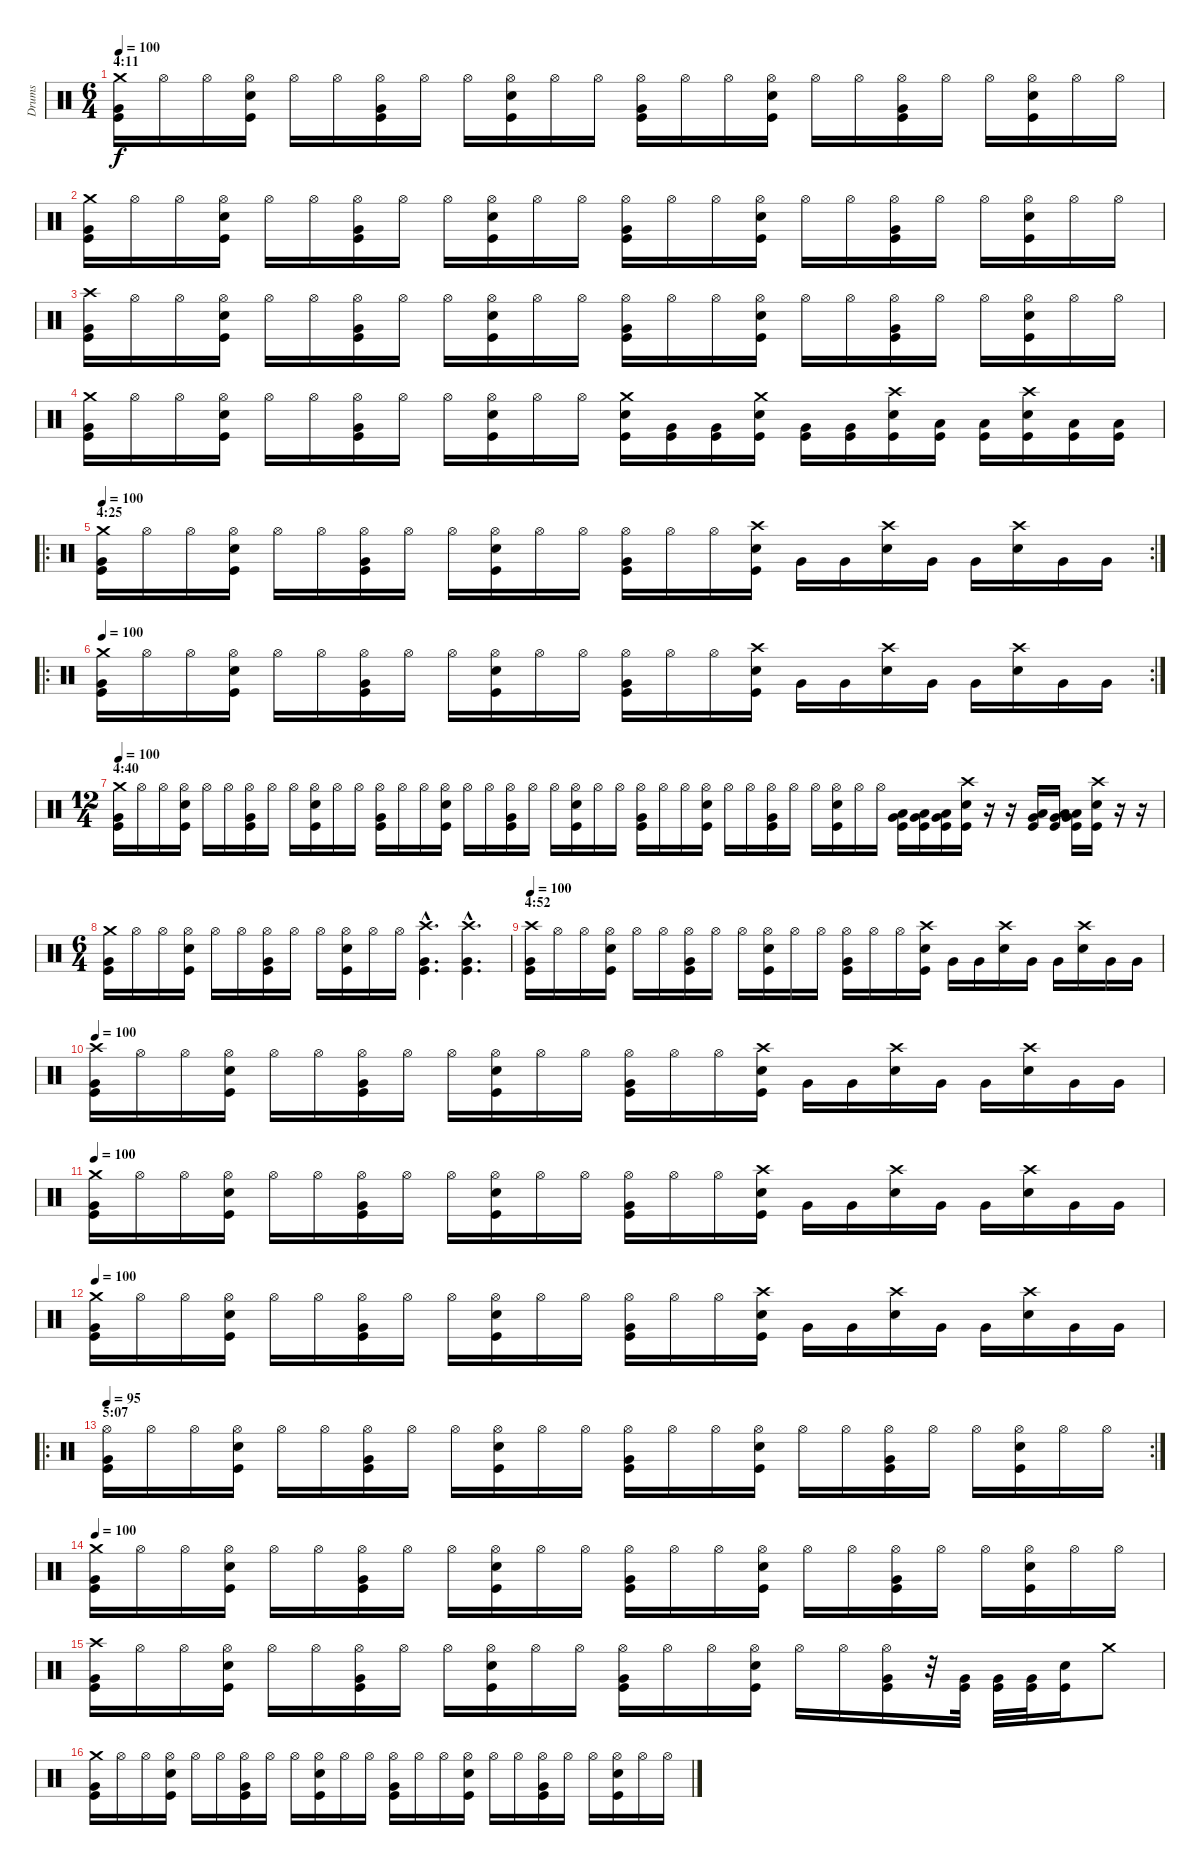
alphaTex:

\track ("Drums" "Drums") {instrument percussion}
\staff {score}
\articulation defaults
\ts (6 4)
\section ("" "4:11")
\tempo 100
\clef neutral
\ks c
("Crash medium (hit)" "Very Low Tom (hit)" "Kick (hit)").16{dy f} "Hi-Hat (open)".16 "Hi-Hat (open)".16 ("Hi-Hat (open)" "Snare (hit) 2" "Kick (hit)").16 "Hi-Hat (open)".16 "Hi-Hat (open)".16 ("Hi-Hat (open)" "Very Low Tom (hit)" "Kick (hit)").16 "Hi-Hat (open)".16 "Hi-Hat (open)".16 ("Hi-Hat (open)" "Snare (hit) 2" "Kick (hit)").16 "Hi-Hat (open)".16 "Hi-Hat (open)".16 ("Hi-Hat (open)" "Very Low Tom (hit)" "Kick (hit)").16 "Hi-Hat (open)".16 "Hi-Hat (open)".16 ("Hi-Hat (open)" "Snare (hit) 2" "Kick (hit)").16 "Hi-Hat (open)".16 "Hi-Hat (open)".16 ("Hi-Hat (open)" "Very Low Tom (hit)" "Kick (hit)").16 "Hi-Hat (open)".16 "Hi-Hat (open)".16 ("Hi-Hat (open)" "Snare (hit) 2" "Kick (hit)").16 "Hi-Hat (open)".16 "Hi-Hat (open)".16 |
("Crash medium (hit)" "Very Low Tom (hit)" "Kick (hit)").16 "Hi-Hat (open)".16 "Hi-Hat (open)".16 ("Hi-Hat (open)" "Snare (hit) 2" "Kick (hit)").16 "Hi-Hat (open)".16 "Hi-Hat (open)".16 ("Hi-Hat (open)" "Very Low Tom (hit)" "Kick (hit)").16 "Hi-Hat (open)".16 "Hi-Hat (open)".16 ("Hi-Hat (open)" "Snare (hit) 2" "Kick (hit)").16 "Hi-Hat (open)".16 "Hi-Hat (open)".16 ("Hi-Hat (open)" "Very Low Tom (hit)" "Kick (hit)").16 "Hi-Hat (open)".16 "Hi-Hat (open)".16 ("Hi-Hat (open)" "Snare (hit) 2" "Kick (hit)").16 "Hi-Hat (open)".16 "Hi-Hat (open)".16 ("Hi-Hat (open)" "Very Low Tom (hit)" "Kick (hit)").16 "Hi-Hat (open)".16 "Hi-Hat (open)".16 ("Hi-Hat (open)" "Snare (hit) 2" "Kick (hit)").16 "Hi-Hat (open)".16 "Hi-Hat (open)".16 |
("Crash high (hit)" "Very Low Tom (hit)" "Kick (hit)").16 "Hi-Hat (open)".16 "Hi-Hat (open)".16 ("Hi-Hat (open)" "Snare (hit) 2" "Kick (hit)").16 "Hi-Hat (open)".16 "Hi-Hat (open)".16 ("Hi-Hat (open)" "Very Low Tom (hit)" "Kick (hit)").16 "Hi-Hat (open)".16 "Hi-Hat (open)".16 ("Hi-Hat (open)" "Snare (hit) 2" "Kick (hit)").16 "Hi-Hat (open)".16 "Hi-Hat (open)".16 ("Hi-Hat (open)" "Very Low Tom (hit)" "Kick (hit)").16 "Hi-Hat (open)".16 "Hi-Hat (open)".16 ("Hi-Hat (open)" "Snare (hit) 2" "Kick (hit)").16 "Hi-Hat (open)".16 "Hi-Hat (open)".16 ("Hi-Hat (open)" "Very Low Tom (hit)" "Kick (hit)").16 "Hi-Hat (open)".16 "Hi-Hat (open)".16 ("Hi-Hat (open)" "Snare (hit) 2" "Kick (hit)").16 "Hi-Hat (open)".16 "Hi-Hat (open)".16 |
("Crash medium (hit)" "Very Low Tom (hit)" "Kick (hit)").16 "Hi-Hat (open)".16 "Hi-Hat (open)".16 ("Hi-Hat (open)" "Snare (hit) 2" "Kick (hit)").16 "Hi-Hat (open)".16 "Hi-Hat (open)".16 ("Hi-Hat (open)" "Very Low Tom (hit)" "Kick (hit)").16 "Hi-Hat (open)".16 "Hi-Hat (open)".16 ("Hi-Hat (open)" "Snare (hit) 2" "Kick (hit)").16 "Hi-Hat (open)".16 "Hi-Hat (open)".16 ("Crash medium (hit)" "Snare (hit) 2" "Kick (hit)").16 ("Very Low Tom (hit)" "Kick (hit)").16 ("Very Low Tom (hit)" "Kick (hit)").16 ("Crash medium (hit)" "Snare (hit) 2" "Kick (hit)").16 ("Very Low Tom (hit)" "Kick (hit)").16 ("Very Low Tom (hit)" "Kick (hit)").16 ("Crash high (hit)" "Snare (hit) 2" "Kick (hit)").16 ("Low Tom (hit)" "Kick (hit)").16 ("Low Tom (hit)" "Kick (hit)").16 ("Crash high (hit)" "Snare (hit) 2" "Kick (hit)").16 ("Low Tom (hit)" "Kick (hit)").16 ("Low Tom (hit)" "Kick (hit)").16 |
\ro
\rc 2
\section ("" "4:25")
\tempo 100
("Crash medium (hit)" "Very Low Tom (hit)" "Kick (hit)").16 "Hi-Hat (open)".16 "Hi-Hat (open)".16 ("Hi-Hat (open)" "Snare (hit) 2" "Kick (hit)").16 "Hi-Hat (open)".16 "Hi-Hat (open)".16 ("Hi-Hat (open)" "Very Low Tom (hit)" "Kick (hit)").16 "Hi-Hat (open)".16 "Hi-Hat (open)".16 ("Hi-Hat (open)" "Snare (hit) 2" "Kick (hit)").16 "Hi-Hat (open)".16 "Hi-Hat (open)".16 ("Hi-Hat (open)" "Very Low Tom (hit)" "Kick (hit)").16 "Hi-Hat (open)".16 "Hi-Hat (open)".16 ("Crash high (hit)" "Snare (hit) 2" "Kick (hit)").16 "Very Low Tom (hit)".16 "Very Low Tom (hit)".16 ("Crash high (hit)" "Snare (hit) 2").16 "Very Low Tom (hit)".16 "Very Low Tom (hit)".16 ("Crash high (hit)" "Snare (hit) 2").16 "Very Low Tom (hit)".16 "Very Low Tom (hit)".16 |
\ro
\rc 2
\tempo 100
("Crash medium (hit)" "Very Low Tom (hit)" "Kick (hit)").16 "Hi-Hat (open)".16 "Hi-Hat (open)".16 ("Hi-Hat (open)" "Snare (hit) 2" "Kick (hit)").16 "Hi-Hat (open)".16 "Hi-Hat (open)".16 ("Hi-Hat (open)" "Very Low Tom (hit)" "Kick (hit)").16 "Hi-Hat (open)".16 "Hi-Hat (open)".16 ("Hi-Hat (open)" "Snare (hit) 2" "Kick (hit)").16 "Hi-Hat (open)".16 "Hi-Hat (open)".16 ("Hi-Hat (open)" "Very Low Tom (hit)" "Kick (hit)").16 "Hi-Hat (open)".16 "Hi-Hat (open)".16 ("Crash high (hit)" "Snare (hit) 2" "Kick (hit)").16 "Very Low Tom (hit)".16 "Very Low Tom (hit)".16 ("Crash high (hit)" "Snare (hit) 2").16 "Very Low Tom (hit)".16 "Very Low Tom (hit)".16 ("Crash high (hit)" "Snare (hit) 2").16 "Very Low Tom (hit)".16 "Very Low Tom (hit)".16 |
\ts (12 4)
\section ("" "4:40")
\tempo 100
("Crash medium (hit)" "Very Low Tom (hit)" "Kick (hit)").16 "Hi-Hat (open)".16 "Hi-Hat (open)".16 ("Hi-Hat (open)" "Snare (hit) 2" "Kick (hit)").16 "Hi-Hat (open)".16 "Hi-Hat (open)".16 ("Hi-Hat (open)" "Very Low Tom (hit)" "Kick (hit)").16 "Hi-Hat (open)".16 "Hi-Hat (open)".16 ("Hi-Hat (open)" "Snare (hit) 2" "Kick (hit)").16 "Hi-Hat (open)".16 "Hi-Hat (open)".16 ("Hi-Hat (open)" "Very Low Tom (hit)" "Kick (hit)").16 "Hi-Hat (open)".16 "Hi-Hat (open)".16 ("Hi-Hat (open)" "Snare (hit) 2" "Kick (hit)").16 "Hi-Hat (open)".16 "Hi-Hat (open)".16 ("Hi-Hat (open)" "Very Low Tom (hit)" "Kick (hit)").16 "Hi-Hat (open)".16 "Hi-Hat (open)".16 ("Hi-Hat (open)" "Snare (hit) 2" "Kick (hit)").16 "Hi-Hat (open)".16 "Hi-Hat (open)".16 ("Hi-Hat (open)" "Very Low Tom (hit)" "Kick (hit)").16 "Hi-Hat (open)".16 "Hi-Hat (open)".16 ("Hi-Hat (open)" "Snare (hit) 2" "Kick (hit)").16 "Hi-Hat (open)".16 "Hi-Hat (open)".16 ("Hi-Hat (open)" "Very Low Tom (hit)" "Kick (hit)").16 "Hi-Hat (open)".16 "Hi-Hat (open)".16 ("Hi-Hat (open)" "Snare (hit) 2" "Kick (hit)").16 "Hi-Hat (open)".16 "Hi-Hat (open)".16 ("Very Low Tom (hit)" "Low Tom (hit)" "Kick (hit)").16 ("Very Low Tom (hit)" "Low Tom (hit)" "Kick (hit)").16 ("Very Low Tom (hit)" "Low Tom (hit)" "Kick (hit)").16 ("Crash high (hit)" "Snare (hit) 2" "Kick (hit)").16 r.16 r.16 ("Very Low Tom (hit)" "Low Tom (hit)" "Kick (hit)").16 ("Very Low Tom (hit)" "Low Tom (hit)" "Kick (hit)").16 ("Very Low Tom (hit)" "Low Tom (hit)" "Kick (hit)").16 ("Crash high (hit)" "Snare (hit) 2" "Kick (hit)").16 r.16 r.16 |
\ts (6 4)
("Crash medium (hit)" "Very Low Tom (hit)" "Kick (hit)").16 "Hi-Hat (open)".16 "Hi-Hat (open)".16 ("Hi-Hat (open)" "Snare (hit) 2" "Kick (hit)").16 "Hi-Hat (open)".16 "Hi-Hat (open)".16 ("Hi-Hat (open)" "Very Low Tom (hit)" "Kick (hit)").16 "Hi-Hat (open)".16 "Hi-Hat (open)".16 ("Hi-Hat (open)" "Snare (hit) 2" "Kick (hit)").16 "Hi-Hat (open)".16 "Hi-Hat (open)".16 ("Crash high (hit)"{hac} "Very Low Tom (hit)"{hac} "Kick (hit)"{hac}).4{d} ("Crash high (hit)"{hac} "Very Low Tom (hit)"{hac} "Kick (hit)"{hac}).4{d} |
\section ("" "4:52")
\tempo 100
("Crash high (hit)" "Very Low Tom (hit)" "Kick (hit)").16 "Hi-Hat (open)".16 "Hi-Hat (open)".16 ("Hi-Hat (open)" "Snare (hit) 2" "Kick (hit)").16 "Hi-Hat (open)".16 "Hi-Hat (open)".16 ("Hi-Hat (open)" "Very Low Tom (hit)" "Kick (hit)").16 "Hi-Hat (open)".16 "Hi-Hat (open)".16 ("Hi-Hat (open)" "Snare (hit) 2" "Kick (hit)").16 "Hi-Hat (open)".16 "Hi-Hat (open)".16 ("Hi-Hat (open)" "Very Low Tom (hit)" "Kick (hit)").16 "Hi-Hat (open)".16 "Hi-Hat (open)".16 ("Crash high (hit)" "Snare (hit) 2" "Kick (hit)").16 "Very Low Tom (hit)".16 "Very Low Tom (hit)".16 ("Crash high (hit)" "Snare (hit) 2").16 "Very Low Tom (hit)".16 "Very Low Tom (hit)".16 ("Crash high (hit)" "Snare (hit) 2").16 "Very Low Tom (hit)".16 "Very Low Tom (hit)".16 |
\tempo 100
("Crash high (hit)" "Very Low Tom (hit)" "Kick (hit)").16 "Hi-Hat (open)".16 "Hi-Hat (open)".16 ("Hi-Hat (open)" "Snare (hit) 2" "Kick (hit)").16 "Hi-Hat (open)".16 "Hi-Hat (open)".16 ("Hi-Hat (open)" "Very Low Tom (hit)" "Kick (hit)").16 "Hi-Hat (open)".16 "Hi-Hat (open)".16 ("Hi-Hat (open)" "Snare (hit) 2" "Kick (hit)").16 "Hi-Hat (open)".16 "Hi-Hat (open)".16 ("Hi-Hat (open)" "Very Low Tom (hit)" "Kick (hit)").16 "Hi-Hat (open)".16 "Hi-Hat (open)".16 ("Crash high (hit)" "Snare (hit) 2" "Kick (hit)").16 "Very Low Tom (hit)".16 "Very Low Tom (hit)".16 ("Crash high (hit)" "Snare (hit) 2").16 "Very Low Tom (hit)".16 "Very Low Tom (hit)".16 ("Crash high (hit)" "Snare (hit) 2").16 "Very Low Tom (hit)".16 "Very Low Tom (hit)".16 |
\tempo 100
("Crash medium (hit)" "Very Low Tom (hit)" "Kick (hit)").16 "Hi-Hat (open)".16 "Hi-Hat (open)".16 ("Hi-Hat (open)" "Snare (hit) 2" "Kick (hit)").16 "Hi-Hat (open)".16 "Hi-Hat (open)".16 ("Hi-Hat (open)" "Very Low Tom (hit)" "Kick (hit)").16 "Hi-Hat (open)".16 "Hi-Hat (open)".16 ("Hi-Hat (open)" "Snare (hit) 2" "Kick (hit)").16 "Hi-Hat (open)".16 "Hi-Hat (open)".16 ("Hi-Hat (open)" "Very Low Tom (hit)" "Kick (hit)").16 "Hi-Hat (open)".16 "Hi-Hat (open)".16 ("Crash high (hit)" "Snare (hit) 2" "Kick (hit)").16 "Very Low Tom (hit)".16 "Very Low Tom (hit)".16 ("Crash high (hit)" "Snare (hit) 2").16 "Very Low Tom (hit)".16 "Very Low Tom (hit)".16 ("Crash high (hit)" "Snare (hit) 2").16 "Very Low Tom (hit)".16 "Very Low Tom (hit)".16 |
\tempo 100
("Crash medium (hit)" "Very Low Tom (hit)" "Kick (hit)").16 "Hi-Hat (open)".16 "Hi-Hat (open)".16 ("Hi-Hat (open)" "Snare (hit) 2" "Kick (hit)").16 "Hi-Hat (open)".16 "Hi-Hat (open)".16 ("Hi-Hat (open)" "Very Low Tom (hit)" "Kick (hit)").16 "Hi-Hat (open)".16 "Hi-Hat (open)".16 ("Hi-Hat (open)" "Snare (hit) 2" "Kick (hit)").16 "Hi-Hat (open)".16 "Hi-Hat (open)".16 ("Hi-Hat (open)" "Very Low Tom (hit)" "Kick (hit)").16 "Hi-Hat (open)".16 "Hi-Hat (open)".16 ("Crash high (hit)" "Snare (hit) 2" "Kick (hit)").16 "Very Low Tom (hit)".16 "Very Low Tom (hit)".16 ("Crash high (hit)" "Snare (hit) 2").16 "Very Low Tom (hit)".16 "Very Low Tom (hit)".16 ("Crash high (hit)" "Snare (hit) 2").16 "Very Low Tom (hit)".16 "Very Low Tom (hit)".16 |
\ro
\rc 2
\section ("" "5:07")
\tempo 95
("Hi-Hat (open)" "Very Low Tom (hit)" "Kick (hit)").16 "Hi-Hat (open)".16 "Hi-Hat (open)".16 ("Hi-Hat (open)" "Snare (hit) 2" "Kick (hit)").16 "Hi-Hat (open)".16 "Hi-Hat (open)".16 ("Hi-Hat (open)" "Very Low Tom (hit)" "Kick (hit)").16 "Hi-Hat (open)".16 "Hi-Hat (open)".16 ("Hi-Hat (open)" "Snare (hit) 2" "Kick (hit)").16 "Hi-Hat (open)".16 "Hi-Hat (open)".16 ("Hi-Hat (open)" "Very Low Tom (hit)" "Kick (hit)").16 "Hi-Hat (open)".16 "Hi-Hat (open)".16 ("Hi-Hat (open)" "Snare (hit) 2" "Kick (hit)").16 "Hi-Hat (open)".16 "Hi-Hat (open)".16 ("Hi-Hat (open)" "Very Low Tom (hit)" "Kick (hit)").16 "Hi-Hat (open)".16 "Hi-Hat (open)".16 ("Hi-Hat (open)" "Snare (hit) 2" "Kick (hit)").16 "Hi-Hat (open)".16 "Hi-Hat (open)".16 |
\tempo 100
("Crash medium (hit)" "Very Low Tom (hit)" "Kick (hit)").16 "Hi-Hat (open)".16 "Hi-Hat (open)".16 ("Hi-Hat (open)" "Snare (hit) 2" "Kick (hit)").16 "Hi-Hat (open)".16 "Hi-Hat (open)".16 ("Hi-Hat (open)" "Very Low Tom (hit)" "Kick (hit)").16 "Hi-Hat (open)".16 "Hi-Hat (open)".16 ("Hi-Hat (open)" "Snare (hit) 2" "Kick (hit)").16 "Hi-Hat (open)".16 "Hi-Hat (open)".16 ("Hi-Hat (open)" "Very Low Tom (hit)" "Kick (hit)").16 "Hi-Hat (open)".16 "Hi-Hat (open)".16 ("Hi-Hat (open)" "Snare (hit) 2" "Kick (hit)").16 "Hi-Hat (open)".16 "Hi-Hat (open)".16 ("Hi-Hat (open)" "Very Low Tom (hit)" "Kick (hit)").16 "Hi-Hat (open)".16 "Hi-Hat (open)".16 ("Hi-Hat (open)" "Snare (hit) 2" "Kick (hit)").16 "Hi-Hat (open)".16 "Hi-Hat (open)".16 |
("Crash high (hit)" "Very Low Tom (hit)" "Kick (hit)").16 "Hi-Hat (open)".16 "Hi-Hat (open)".16 ("Hi-Hat (open)" "Snare (hit) 2" "Kick (hit)").16 "Hi-Hat (open)".16 "Hi-Hat (open)".16 ("Hi-Hat (open)" "Very Low Tom (hit)" "Kick (hit)").16 "Hi-Hat (open)".16 "Hi-Hat (open)".16 ("Hi-Hat (open)" "Snare (hit) 2" "Kick (hit)").16 "Hi-Hat (open)".16 "Hi-Hat (open)".16 ("Hi-Hat (open)" "Very Low Tom (hit)" "Kick (hit)").16 "Hi-Hat (open)".16 "Hi-Hat (open)".16 ("Hi-Hat (open)" "Snare (hit) 2" "Kick (hit)").16 "Hi-Hat (open)".16 "Hi-Hat (open)".16 ("Hi-Hat (open)" "Very Low Tom (hit)" "Kick (hit)").16 r.32 ("Very Low Tom (hit)" "Kick (hit)").32 ("Very Low Tom (hit)" "Kick (hit)").32 ("Very Low Tom (hit)" "Kick (hit)").32 ("Snare (hit) 2" "Kick (hit)").16 "Crash medium (hit)".8 |
("Crash medium (hit)" "Very Low Tom (hit)" "Kick (hit)").16 "Hi-Hat (open)".16 "Hi-Hat (open)".16 ("Hi-Hat (open)" "Snare (hit) 2" "Kick (hit)").16 "Hi-Hat (open)".16 "Hi-Hat (open)".16 ("Hi-Hat (open)" "Very Low Tom (hit)" "Kick (hit)").16 "Hi-Hat (open)".16 "Hi-Hat (open)".16 ("Hi-Hat (open)" "Snare (hit) 2" "Kick (hit)").16 "Hi-Hat (open)".16 "Hi-Hat (open)".16 ("Hi-Hat (open)" "Very Low Tom (hit)" "Kick (hit)").16 "Hi-Hat (open)".16 "Hi-Hat (open)".16 ("Hi-Hat (open)" "Snare (hit) 2" "Kick (hit)").16 "Hi-Hat (open)".16 "Hi-Hat (open)".16 ("Hi-Hat (open)" "Very Low Tom (hit)" "Kick (hit)").16 "Hi-Hat (open)".16 "Hi-Hat (open)".16 ("Hi-Hat (open)" "Snare (hit) 2" "Kick (hit)").16 "Hi-Hat (open)".16 "Hi-Hat (open)".16
